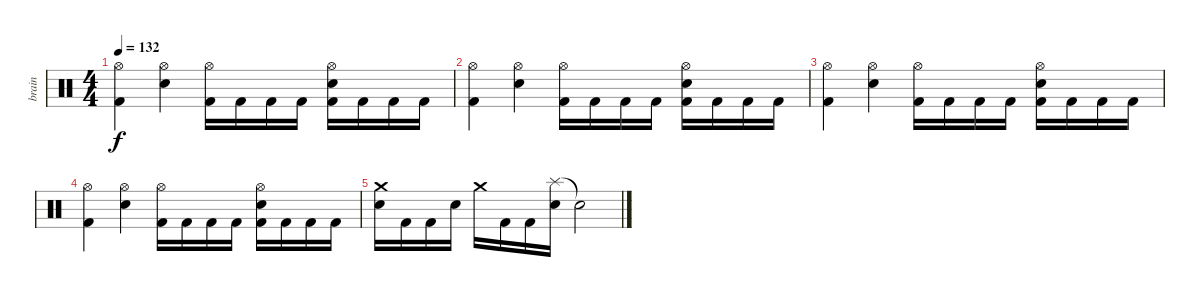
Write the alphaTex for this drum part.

\track ("brain" "brain") {instrument percussion}
\staff {score}
\articulation defaults
\ts (4 4)
\tempo 132
\clef neutral
\ks c
("Hi-Hat (open)" "Kick (hit) 2").4{dy f} ("Hi-Hat (open)" "Electric Snare (hit)").4 ("Hi-Hat (open)" "Kick (hit) 2").16 "Kick (hit) 2".16 "Kick (hit) 2".16 "Kick (hit) 2".16 ("Hi-Hat (open)" "Electric Snare (hit)" "Kick (hit) 2").16 "Kick (hit) 2".16 "Kick (hit) 2".16 "Kick (hit) 2".16 |
("Hi-Hat (open)" "Kick (hit) 2").4 ("Hi-Hat (open)" "Electric Snare (hit)").4 ("Hi-Hat (open)" "Kick (hit) 2").16 "Kick (hit) 2".16 "Kick (hit) 2".16 "Kick (hit) 2".16 ("Hi-Hat (open)" "Electric Snare (hit)" "Kick (hit) 2").16 "Kick (hit) 2".16 "Kick (hit) 2".16 "Kick (hit) 2".16 |
("Hi-Hat (open)" "Kick (hit) 2").4 ("Hi-Hat (open)" "Electric Snare (hit)").4 ("Hi-Hat (open)" "Kick (hit) 2").16 "Kick (hit) 2".16 "Kick (hit) 2".16 "Kick (hit) 2".16 ("Hi-Hat (open)" "Electric Snare (hit)" "Kick (hit) 2").16 "Kick (hit) 2".16 "Kick (hit) 2".16 "Kick (hit) 2".16 |
("Hi-Hat (open)" "Kick (hit) 2").4 ("Hi-Hat (open)" "Electric Snare (hit)").4 ("Hi-Hat (open)" "Kick (hit) 2").16 "Kick (hit) 2".16 "Kick (hit) 2".16 "Kick (hit) 2".16 ("Hi-Hat (open)" "Electric Snare (hit)" "Kick (hit) 2").16 "Kick (hit) 2".16 "Kick (hit) 2".16 "Kick (hit) 2".16 |
("Crash medium (hit)" "Electric Snare (hit)").16 "Kick (hit) 2".16 "Kick (hit) 2".16 "Electric Snare (hit)".16 "Crash medium (hit)".16 "Kick (hit) 2".16 "Kick (hit) 2".16 ("Splash (hit)" "Electric Snare (hit)").16 "Snare (hit)"{t}.2
